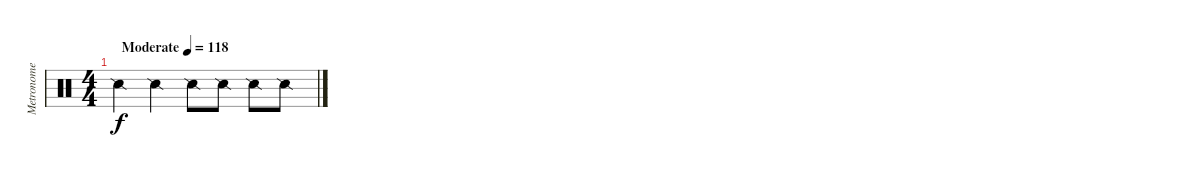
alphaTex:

\track ("Metronome" "Metronome") {instrument percussion}
\staff {score}
\articulation defaults
\ts (4 4)
\tempo (118 "Moderate")
\clef neutral
\ks c "Snare (side stick) 2".4{dy f} "Snare (side stick) 2".4 "Snare (side stick) 2".8 "Snare (side stick) 2".8 "Snare (side stick) 2".8 "Snare (side stick) 2".8
